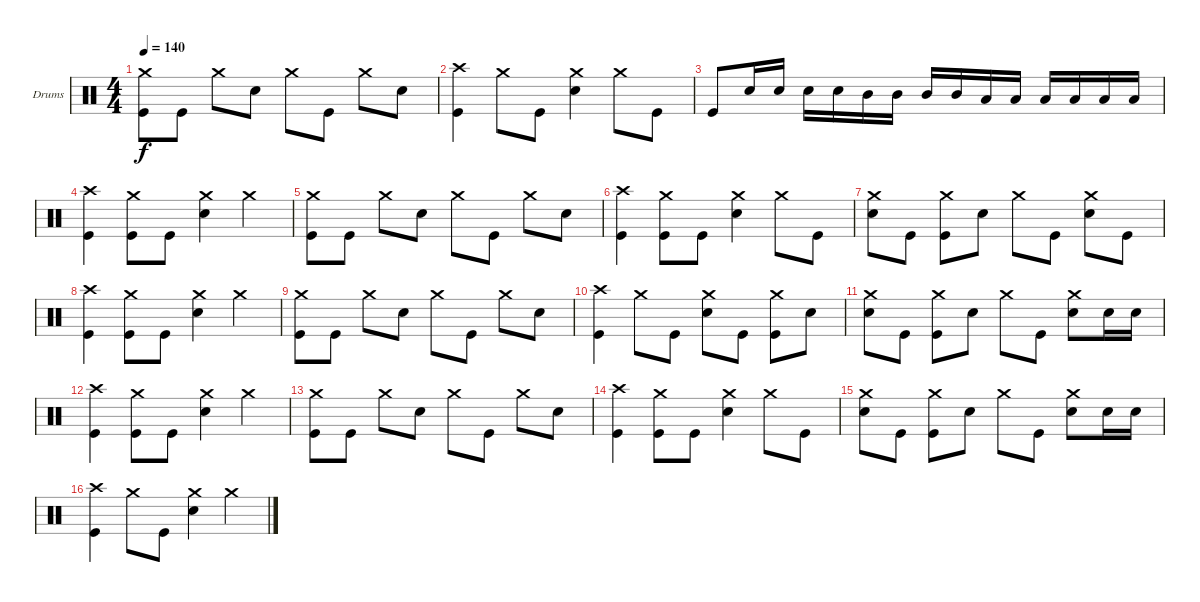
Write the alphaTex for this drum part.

\defaultSystemsLayout 4
\bracketExtendMode groupsimilarinstruments
\firstSystemTrackNameOrientation horizontal
\otherSystemsTrackNameOrientation horizontal
\track ("Drumkit" "Drums") {instrument percussion}
\staff {score}
\articulation defaults
\ts (4 4)
\tempo 140
\clef neutral
\ks c
("Crash medium (hit)" "Kick (hit)").8{dy f} "Kick (hit)".8 "Crash medium (hit)".8 "Snare (hit) 2".8 "Crash medium (hit)".8 "Kick (hit)".8 "Crash medium (hit)".8 "Snare (hit) 2".8 |
("Crash high (hit)" "Kick (hit)").4 "Crash medium (hit)".8 "Kick (hit)".8 ("Crash medium (hit)" "Snare (hit) 2").4 "Crash medium (hit)".8 "Kick (hit)".8 |
"Kick (hit)".8 "Snare (hit) 2".16 "Snare (hit) 2".16 "Snare (hit) 2".16 "Snare (hit) 2".16 "Mid Tom (hit)".16 "Mid Tom (hit)".16 "Mid Tom (hit)".16 "Mid Tom (hit)".16 "Low Tom (hit)".16 "Low Tom (hit)".16 "Low Tom (hit)".16 "Low Tom (hit)".16 "Low Tom (hit)".16 "Low Tom (hit)".16 |
("Crash high (hit)" "Kick (hit)").4 ("Crash medium (hit)" "Kick (hit)").8 "Kick (hit)".8 ("Crash medium (hit)" "Snare (hit) 2").4 "Crash medium (hit)".4 |
("Crash medium (hit)" "Kick (hit)").8 "Kick (hit)".8 "Crash medium (hit)".8 "Snare (hit) 2".8 "Crash medium (hit)".8 "Kick (hit)".8 "Crash medium (hit)".8 "Snare (hit) 2".8 |
("Crash high (hit)" "Kick (hit)").4 ("Crash medium (hit)" "Kick (hit)").8 "Kick (hit)".8 ("Crash medium (hit)" "Snare (hit) 2").4 "Crash medium (hit)".8 "Kick (hit)".8 |
("Crash medium (hit)" "Snare (hit) 2").8 "Kick (hit)".8 ("Crash medium (hit)" "Kick (hit)").8 "Snare (hit) 2".8 "Crash medium (hit)".8 "Kick (hit)".8 ("Crash medium (hit)" "Snare (hit) 2").8 "Kick (hit)".8 |
("Crash high (hit)" "Kick (hit)").4 ("Crash medium (hit)" "Kick (hit)").8 "Kick (hit)".8 ("Crash medium (hit)" "Snare (hit) 2").4 "Crash medium (hit)".4 |
("Crash medium (hit)" "Kick (hit)").8 "Kick (hit)".8 "Crash medium (hit)".8 "Snare (hit) 2".8 "Crash medium (hit)".8 "Kick (hit)".8 "Crash medium (hit)".8 "Snare (hit) 2".8 |
("Crash high (hit)" "Kick (hit)").4 "Crash medium (hit)".8 "Kick (hit)".8 ("Crash medium (hit)" "Snare (hit) 2").8 "Kick (hit)".8 ("Crash medium (hit)" "Kick (hit)").8 "Snare (hit) 2".8 |
("Crash medium (hit)" "Snare (hit) 2").8 "Kick (hit)".8 ("Crash medium (hit)" "Kick (hit)").8 "Snare (hit) 2".8 "Crash medium (hit)".8 "Kick (hit)".8 ("Crash medium (hit)" "Snare (hit) 2").8 "Snare (hit) 2".16 "Snare (hit) 2".16 |
("Crash high (hit)" "Kick (hit)").4 ("Crash medium (hit)" "Kick (hit)").8 "Kick (hit)".8 ("Crash medium (hit)" "Snare (hit) 2").4 "Crash medium (hit)".4 |
("Crash medium (hit)" "Kick (hit)").8 "Kick (hit)".8 "Crash medium (hit)".8 "Snare (hit) 2".8 "Crash medium (hit)".8 "Kick (hit)".8 "Crash medium (hit)".8 "Snare (hit) 2".8 |
("Crash high (hit)" "Kick (hit)").4 ("Crash medium (hit)" "Kick (hit)").8 "Kick (hit)".8 ("Crash medium (hit)" "Snare (hit) 2").4 "Crash medium (hit)".8 "Kick (hit)".8 |
("Crash medium (hit)" "Snare (hit) 2").8 "Kick (hit)".8 ("Crash medium (hit)" "Kick (hit)").8 "Snare (hit) 2".8 "Crash medium (hit)".8 "Kick (hit)".8 ("Crash medium (hit)" "Snare (hit) 2").8 "Snare (hit) 2".16 "Snare (hit) 2".16 |
("Crash high (hit)" "Kick (hit)").4 "Crash medium (hit)".8 "Kick (hit)".8 ("Crash medium (hit)" "Snare (hit) 2").4 "Crash medium (hit)".4
